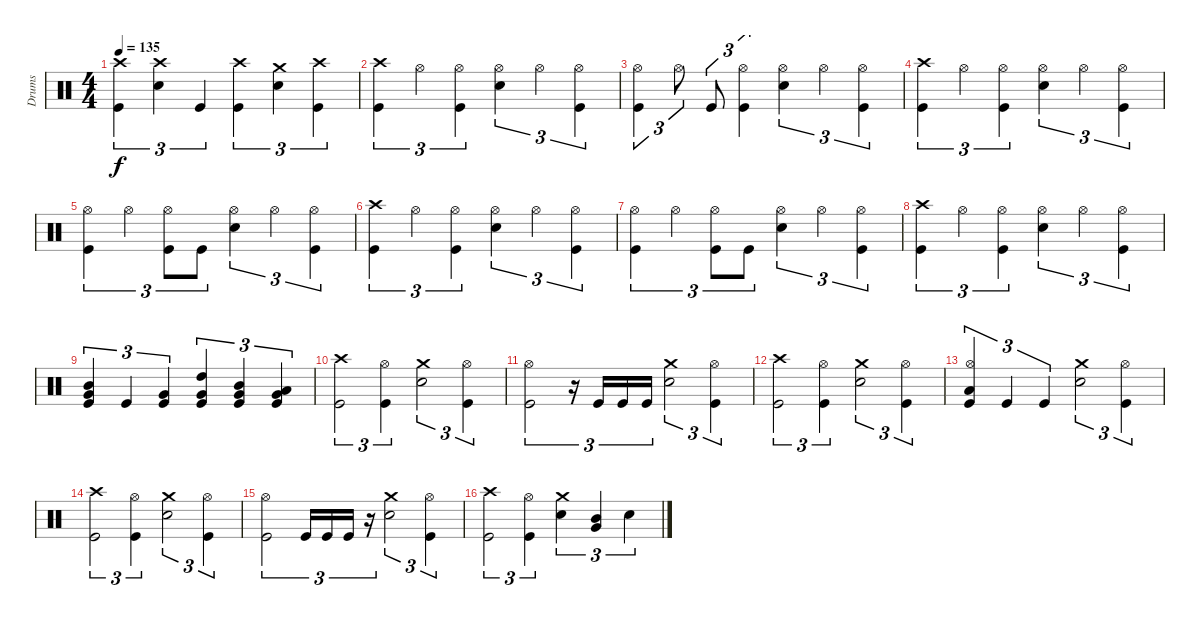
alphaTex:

\track ("Drums" "Drums") {instrument percussion}
\staff {score}
\articulation defaults
\ts (4 4)
\tempo 135
\clef neutral
\ks c
("Crash high (hit)" "Kick (hit)").4{tu (3 2) dy f} ("Crash high (hit)" "Electric Snare (hit)").4{tu (3 2)} "Kick (hit)".4{tu (3 2)} ("Crash high (hit)" "Kick (hit)").4{tu (3 2)} ("Crash medium (hit)" "Electric Snare (hit)").4{tu (3 2)} ("Crash high (hit)" "Kick (hit)").4{tu (3 2)} |
("Crash high (hit)" "Kick (hit)").4{tu (3 2)} "Hi-Hat (open)".4{tu (3 2)} ("Hi-Hat (open)" "Kick (hit)").4{tu (3 2)} ("Hi-Hat (open)" "Electric Snare (hit)").4{tu (3 2)} "Hi-Hat (open)".4{tu (3 2)} ("Hi-Hat (open)" "Kick (hit)").4{tu (3 2)} |
("Hi-Hat (open)" "Kick (hit)").4{tu (3 2)} "Hi-Hat (open)".8{tu (3 2)} "Kick (hit)".8{tu (3 2)} ("Hi-Hat (open)" "Kick (hit)").4{tu (3 2)} ("Hi-Hat (open)" "Electric Snare (hit)").4{tu (3 2)} "Hi-Hat (open)".4{tu (3 2)} ("Hi-Hat (open)" "Kick (hit)").4{tu (3 2)} |
("Crash high (hit)" "Kick (hit)").4{tu (3 2)} "Hi-Hat (open)".4{tu (3 2)} ("Hi-Hat (open)" "Kick (hit)").4{tu (3 2)} ("Hi-Hat (open)" "Electric Snare (hit)").4{tu (3 2)} "Hi-Hat (open)".4{tu (3 2)} ("Hi-Hat (open)" "Kick (hit)").4{tu (3 2)} |
("Hi-Hat (open)" "Kick (hit)").4{tu (3 2)} "Hi-Hat (open)".4{tu (3 2)} ("Hi-Hat (open)" "Kick (hit)").8{tu (3 2)} "Kick (hit)".8{tu (3 2)} ("Hi-Hat (open)" "Electric Snare (hit)").4{tu (3 2)} "Hi-Hat (open)".4{tu (3 2)} ("Hi-Hat (open)" "Kick (hit)").4{tu (3 2)} |
("Crash high (hit)" "Kick (hit)").4{tu (3 2)} "Hi-Hat (open)".4{tu (3 2)} ("Hi-Hat (open)" "Kick (hit)").4{tu (3 2)} ("Hi-Hat (open)" "Electric Snare (hit)").4{tu (3 2)} "Hi-Hat (open)".4{tu (3 2)} ("Hi-Hat (open)" "Kick (hit)").4{tu (3 2)} |
("Hi-Hat (open)" "Kick (hit)").4{tu (3 2)} "Hi-Hat (open)".4{tu (3 2)} ("Hi-Hat (open)" "Kick (hit)").8{tu (3 2)} "Kick (hit)".8{tu (3 2)} ("Hi-Hat (open)" "Electric Snare (hit)").4{tu (3 2)} "Hi-Hat (open)".4{tu (3 2)} ("Hi-Hat (open)" "Kick (hit)").4{tu (3 2)} |
("Crash high (hit)" "Kick (hit)").4{tu (3 2)} "Hi-Hat (open)".4{tu (3 2)} ("Hi-Hat (open)" "Kick (hit)").4{tu (3 2)} ("Hi-Hat (open)" "Electric Snare (hit)").4{tu (3 2)} "Hi-Hat (open)".4{tu (3 2)} ("Hi-Hat (open)" "Kick (hit)").4{tu (3 2)} |
("Mid Tom (hit)" "Very Low Tom (hit)" "Kick (hit)").4{tu (3 2)} "Kick (hit)".4{tu (3 2)} ("Very Low Tom (hit)" "Kick (hit)").4{tu (3 2)} ("High Tom (hit)" "Very Low Tom (hit)" "Kick (hit)").4{tu (3 2)} ("Mid Tom (hit)" "Very Low Tom (hit)" "Kick (hit)").4{tu (3 2)} ("Low Tom (hit)" "Very Low Tom (hit)" "Kick (hit)").4{tu (3 2)} |
("Crash high (hit)" "Kick (hit)").2{tu (3 2)} ("Hi-Hat (open)" "Kick (hit)").4{tu (3 2)} ("Crash medium (hit)" "Electric Snare (hit)").2{tu (3 2)} ("Hi-Hat (open)" "Kick (hit)").4{tu (3 2)} |
("Hi-Hat (open)" "Kick (hit)").2{tu (3 2)} r.16{tu (3 2)} "Kick (hit)".16{tu (3 2)} "Kick (hit)".16{tu (3 2)} "Kick (hit)".16{tu (3 2)} ("Crash medium (hit)" "Electric Snare (hit)").2{tu (3 2)} ("Hi-Hat (open)" "Kick (hit)").4{tu (3 2)} |
("Crash high (hit)" "Kick (hit)").2{tu (3 2)} ("Hi-Hat (open)" "Kick (hit)").4{tu (3 2)} ("Crash medium (hit)" "Electric Snare (hit)").2{tu (3 2)} ("Hi-Hat (open)" "Kick (hit)").4{tu (3 2)} |
("Hi-Hat (open)" "Low Floor Tom (hit)" "Kick (hit)").4{tu (3 2)} "Kick (hit)".4{tu (3 2)} "Kick (hit)".4{tu (3 2)} ("Crash medium (hit)" "Electric Snare (hit)").2{tu (3 2)} ("Hi-Hat (open)" "Kick (hit)").4{tu (3 2)} |
("Crash high (hit)" "Kick (hit)").2{tu (3 2)} ("Hi-Hat (open)" "Kick (hit)").4{tu (3 2)} ("Crash medium (hit)" "Electric Snare (hit)").2{tu (3 2)} ("Hi-Hat (open)" "Kick (hit)").4{tu (3 2)} |
("Hi-Hat (open)" "Kick (hit)").2{tu (3 2)} "Kick (hit)".16{tu (3 2)} "Kick (hit)".16{tu (3 2)} "Kick (hit)".16{tu (3 2)} r.16{tu (3 2)} ("Crash medium (hit)" "Electric Snare (hit)").2{tu (3 2)} ("Hi-Hat (open)" "Kick (hit)").4{tu (3 2)} |
("Crash high (hit)" "Kick (hit)").2{tu (3 2)} ("Hi-Hat (open)" "Kick (hit)").4{tu (3 2)} ("Crash medium (hit)" "Electric Snare (hit)").4{tu (3 2)} ("Mid Tom (hit)" "Very Low Tom (hit)").4{tu (3 2)} "Electric Snare (hit)".4{tu (3 2)}
